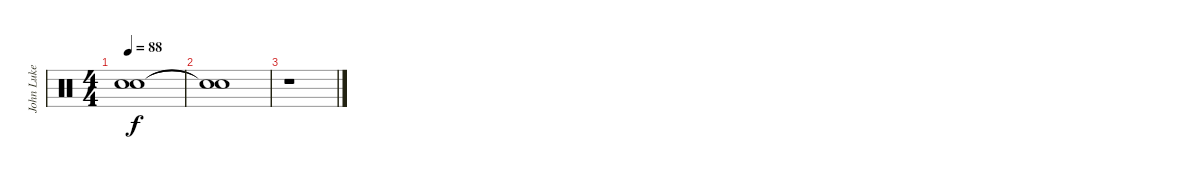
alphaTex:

\track ("John Luke (Drums)" "John Luke ") {instrument percussion}
\staff {score}
\articulation defaults
\ts (4 4)
\tempo 88
\clef neutral
\ks c
("Snare (hit)"{t} "Snare (hit)"{t}).1{dy f} |
("Snare (hit)"{t} "Snare (hit)"{t}).1 |
r.1
